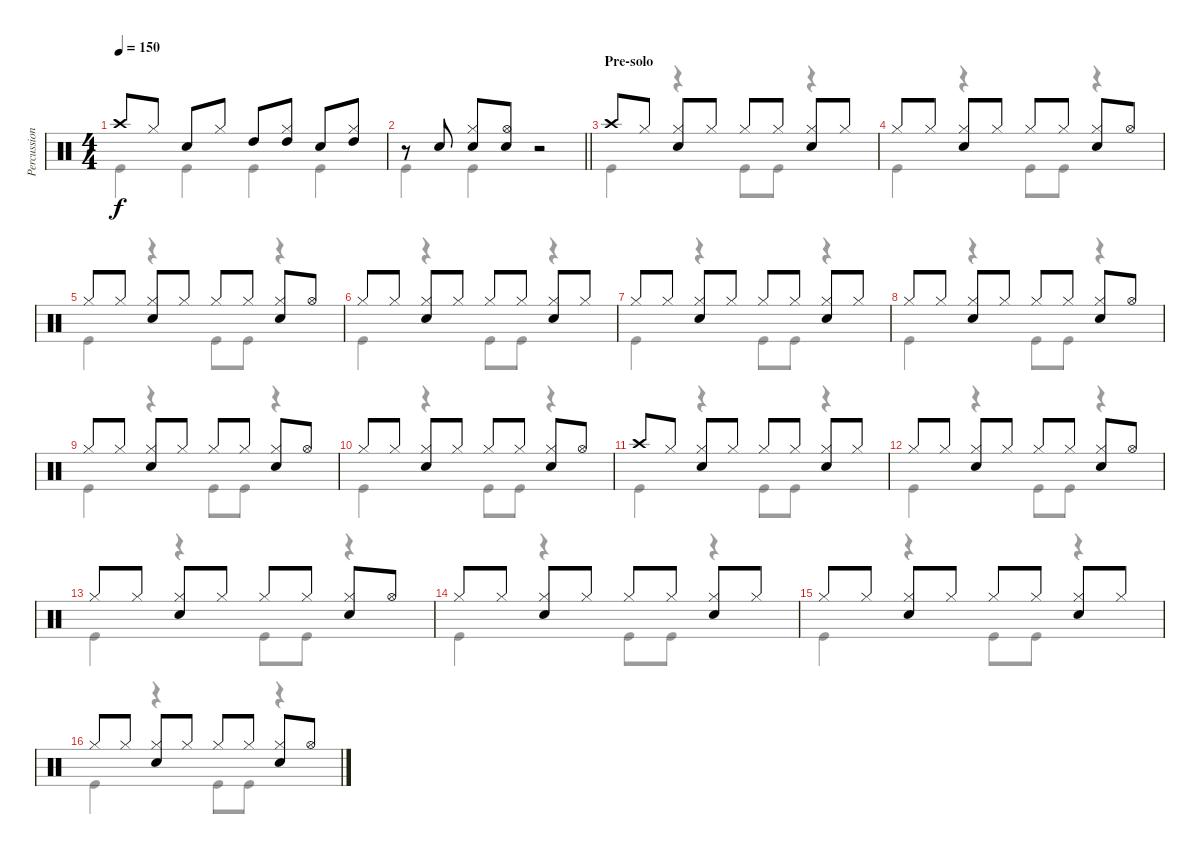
\track ("Percussion" "Percussion") {instrument percussion}
\staff {score}
\articulation defaults
\voice
\ts (4 4)
\tempo 150
\clef neutral
\ks c "Crash high (hit)".8{dy f} "Hi-Hat (closed)".8 "Snare (hit) 2".8 "Hi-Hat (closed)".8 "High Tom (hit)".8
("Hi-Hat (closed)" "High Tom (hit)").8 "Snare (hit) 2".8 ("Hi-Hat (closed)" "High Tom (hit)").8 |
\barLineRight lightlight
r.8 "Snare (hit) 2".8 ("Hi-Hat (closed)" "Snare (hit) 2").8 ("Hi-Hat (open)" "Snare (hit) 2").8 r.2 |
\section ("" "Pre-solo")
"Crash high (hit)".8 "Hi-Hat (closed)".8 ("Hi-Hat (closed)" "Snare (hit) 2").8 "Hi-Hat (closed)".8 "Hi-Hat (closed)".8 "Hi-Hat (closed)".8 ("Hi-Hat (closed)" "Snare (hit) 2").8 "Hi-Hat (closed)".8 |
"Hi-Hat (closed)".8 "Hi-Hat (closed)".8 ("Hi-Hat (closed)" "Snare (hit) 2").8 "Hi-Hat (closed)".8 "Hi-Hat (closed)".8 "Hi-Hat (closed)".8 ("Hi-Hat (closed)" "Snare (hit) 2").8 "Hi-Hat (open)".8 |
"Hi-Hat (closed)".8 "Hi-Hat (closed)".8 ("Hi-Hat (closed)" "Snare (hit) 2").8 "Hi-Hat (closed)".8 "Hi-Hat (closed)".8 "Hi-Hat (closed)".8 ("Hi-Hat (closed)" "Snare (hit) 2").8 "Hi-Hat (open)".8 |
"Hi-Hat (closed)".8 "Hi-Hat (closed)".8 ("Hi-Hat (closed)" "Snare (hit) 2").8 "Hi-Hat (closed)".8 "Hi-Hat (closed)".8 "Hi-Hat (closed)".8 ("Hi-Hat (closed)" "Snare (hit) 2").8 "Hi-Hat (closed)".8 |
"Hi-Hat (closed)".8 "Hi-Hat (closed)".8 ("Hi-Hat (closed)" "Snare (hit) 2").8 "Hi-Hat (closed)".8 "Hi-Hat (closed)".8 "Hi-Hat (closed)".8 ("Hi-Hat (closed)" "Snare (hit) 2").8 "Hi-Hat (closed)".8 |
"Hi-Hat (closed)".8 "Hi-Hat (closed)".8 ("Hi-Hat (closed)" "Snare (hit) 2").8 "Hi-Hat (closed)".8 "Hi-Hat (closed)".8 "Hi-Hat (closed)".8 ("Hi-Hat (closed)" "Snare (hit) 2").8 "Hi-Hat (open)".8 |
"Hi-Hat (closed)".8 "Hi-Hat (closed)".8 ("Hi-Hat (closed)" "Snare (hit) 2").8 "Hi-Hat (closed)".8 "Hi-Hat (closed)".8 "Hi-Hat (closed)".8 ("Hi-Hat (closed)" "Snare (hit) 2").8 "Hi-Hat (open)".8 |
"Hi-Hat (closed)".8 "Hi-Hat (closed)".8 ("Hi-Hat (closed)" "Snare (hit) 2").8 "Hi-Hat (closed)".8 "Hi-Hat (closed)".8 "Hi-Hat (closed)".8 ("Hi-Hat (closed)" "Snare (hit) 2").8 "Hi-Hat (open)".8 |
"Crash high (hit)".8 "Hi-Hat (closed)".8 ("Hi-Hat (closed)" "Snare (hit) 2").8 "Hi-Hat (closed)".8 "Hi-Hat (closed)".8 "Hi-Hat (closed)".8 ("Hi-Hat (closed)" "Snare (hit) 2").8 "Hi-Hat (closed)".8 |
"Hi-Hat (closed)".8 "Hi-Hat (closed)".8 ("Hi-Hat (closed)" "Snare (hit) 2").8 "Hi-Hat (closed)".8 "Hi-Hat (closed)".8 "Hi-Hat (closed)".8 ("Hi-Hat (closed)" "Snare (hit) 2").8 "Hi-Hat (open)".8 |
"Hi-Hat (closed)".8 "Hi-Hat (closed)".8 ("Hi-Hat (closed)" "Snare (hit) 2").8 "Hi-Hat (closed)".8 "Hi-Hat (closed)".8 "Hi-Hat (closed)".8 ("Hi-Hat (closed)" "Snare (hit) 2").8 "Hi-Hat (open)".8 |
"Hi-Hat (closed)".8 "Hi-Hat (closed)".8 ("Hi-Hat (closed)" "Snare (hit) 2").8 "Hi-Hat (closed)".8 "Hi-Hat (closed)".8 "Hi-Hat (closed)".8 ("Hi-Hat (closed)" "Snare (hit) 2").8 "Hi-Hat (closed)".8 |
"Hi-Hat (closed)".8 "Hi-Hat (closed)".8 ("Hi-Hat (closed)" "Snare (hit) 2").8 "Hi-Hat (closed)".8 "Hi-Hat (closed)".8 "Hi-Hat (closed)".8 ("Hi-Hat (closed)" "Snare (hit) 2").8 "Hi-Hat (closed)".8 |
"Hi-Hat (closed)".8 "Hi-Hat (closed)".8 ("Hi-Hat (closed)" "Snare (hit) 2").8 "Hi-Hat (closed)".8 "Hi-Hat (closed)".8 "Hi-Hat (closed)".8 ("Hi-Hat (closed)" "Snare (hit) 2").8 "Hi-Hat (open)".8
\voice
\clef neutral
\ottava regular
\simile none
\ks c "Kick (hit)".4{dy f} "Kick (hit)".4 "Kick (hit)".4 "Kick (hit)".4
|
\barLineRight lightlight "Kick (hit)".4 "Kick (hit)".4
r.2 |
"Kick (hit)".4 r.4 "Kick (hit)".8 "Kick (hit)".8 r.4 |
"Kick (hit)".4 r.4 "Kick (hit)".8 "Kick (hit)".8 r.4 |
"Kick (hit)".4 r.4 "Kick (hit)".8 "Kick (hit)".8 r.4 |
"Kick (hit)".4 r.4 "Kick (hit)".8 "Kick (hit)".8 r.4 |
"Kick (hit)".4 r.4 "Kick (hit)".8 "Kick (hit)".8 r.4 |
"Kick (hit)".4 r.4 "Kick (hit)".8 "Kick (hit)".8 r.4 |
"Kick (hit)".4 r.4 "Kick (hit)".8 "Kick (hit)".8 r.4 |
"Kick (hit)".4 r.4 "Kick (hit)".8 "Kick (hit)".8 r.4 |
"Kick (hit)".4 r.4 "Kick (hit)".8 "Kick (hit)".8 r.4 |
"Kick (hit)".4 r.4 "Kick (hit)".8 "Kick (hit)".8 r.4 |
"Kick (hit)".4 r.4 "Kick (hit)".8 "Kick (hit)".8 r.4 |
"Kick (hit)".4 r.4 "Kick (hit)".8 "Kick (hit)".8 r.4 |
"Kick (hit)".4 r.4 "Kick (hit)".8 "Kick (hit)".8 r.4 |
"Kick (hit)".4 r.4 "Kick (hit)".8 "Kick (hit)".8 r.4
